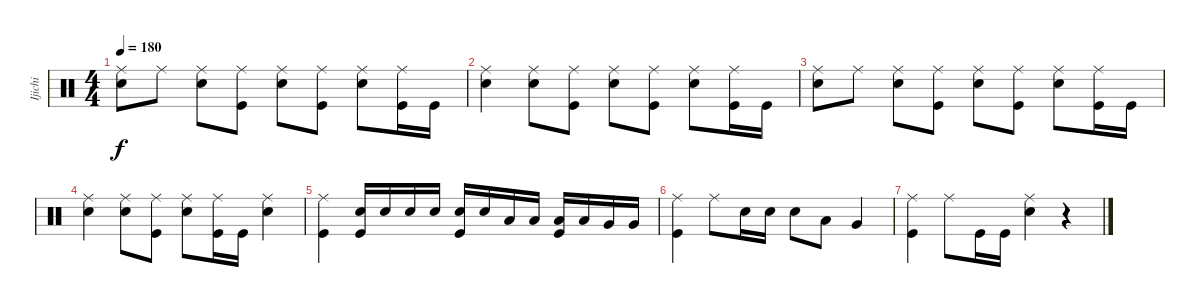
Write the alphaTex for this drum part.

\track ("Ijichi" "Ijichi") {instrument percussion}
\staff {score}
\articulation defaults
\ts (4 4)
\tempo 180
\clef neutral
\ks c
("Ride (middle)" "Snare (hit) 2").8{dy f} "Ride (middle)".8 ("Ride (middle)" "Snare (hit) 2").8 ("Ride (middle)" "Kick (hit)").8 ("Ride (middle)" "Snare (hit) 2").8 ("Ride (middle)" "Kick (hit)").8 ("Ride (middle)" "Snare (hit) 2").8 ("Ride (middle)" "Kick (hit)").16 "Kick (hit)".16 |
("Ride (middle)" "Snare (hit) 2").4 ("Ride (middle)" "Snare (hit) 2").8 ("Ride (middle)" "Kick (hit)").8 ("Ride (middle)" "Snare (hit) 2").8 ("Ride (middle)" "Kick (hit)").8 ("Ride (middle)" "Snare (hit) 2").8 ("Ride (middle)" "Kick (hit)").16 "Kick (hit)".16 |
("Ride (middle)" "Snare (hit) 2").8 "Ride (middle)".8 ("Ride (middle)" "Snare (hit) 2").8 ("Ride (middle)" "Kick (hit)").8 ("Ride (middle)" "Snare (hit) 2").8 ("Ride (middle)" "Kick (hit)").8 ("Ride (middle)" "Snare (hit) 2").8 ("Ride (middle)" "Kick (hit)").16 "Kick (hit)".16 |
("Ride (middle)" "Snare (hit) 2").4 ("Ride (middle)" "Snare (hit) 2").8 ("Ride (middle)" "Kick (hit)").8 ("Ride (middle)" "Snare (hit) 2").8 ("Ride (middle)" "Kick (hit)").16 "Kick (hit)".16 ("Ride (middle)" "Snare (hit) 2").4 |
("Ride (middle)" "Kick (hit)").4 ("Snare (hit) 2" "Kick (hit)").16 "Snare (hit) 2".16 "Snare (hit) 2".16 "Snare (hit) 2".16 ("Snare (hit) 2" "Kick (hit)").16 "Snare (hit) 2".16 "Low Tom (hit)".16 "Low Tom (hit)".16 ("Low Tom (hit)" "Kick (hit)").16 "Low Tom (hit)".16 "Very Low Tom (hit)".16 "Very Low Tom (hit)".16 |
("Ride (middle)" "Kick (hit)").4 "Ride (middle)".8 "Snare (hit) 2".16 "Snare (hit) 2".16 "Snare (hit) 2".8 "Low Tom (hit)".8 "Very Low Tom (hit)".4 |
("Ride (middle)" "Kick (hit)").4 "Ride (middle)".8 "Kick (hit)".16 "Kick (hit)".16 ("Ride (middle)" "Snare (hit) 2").4 r.4
